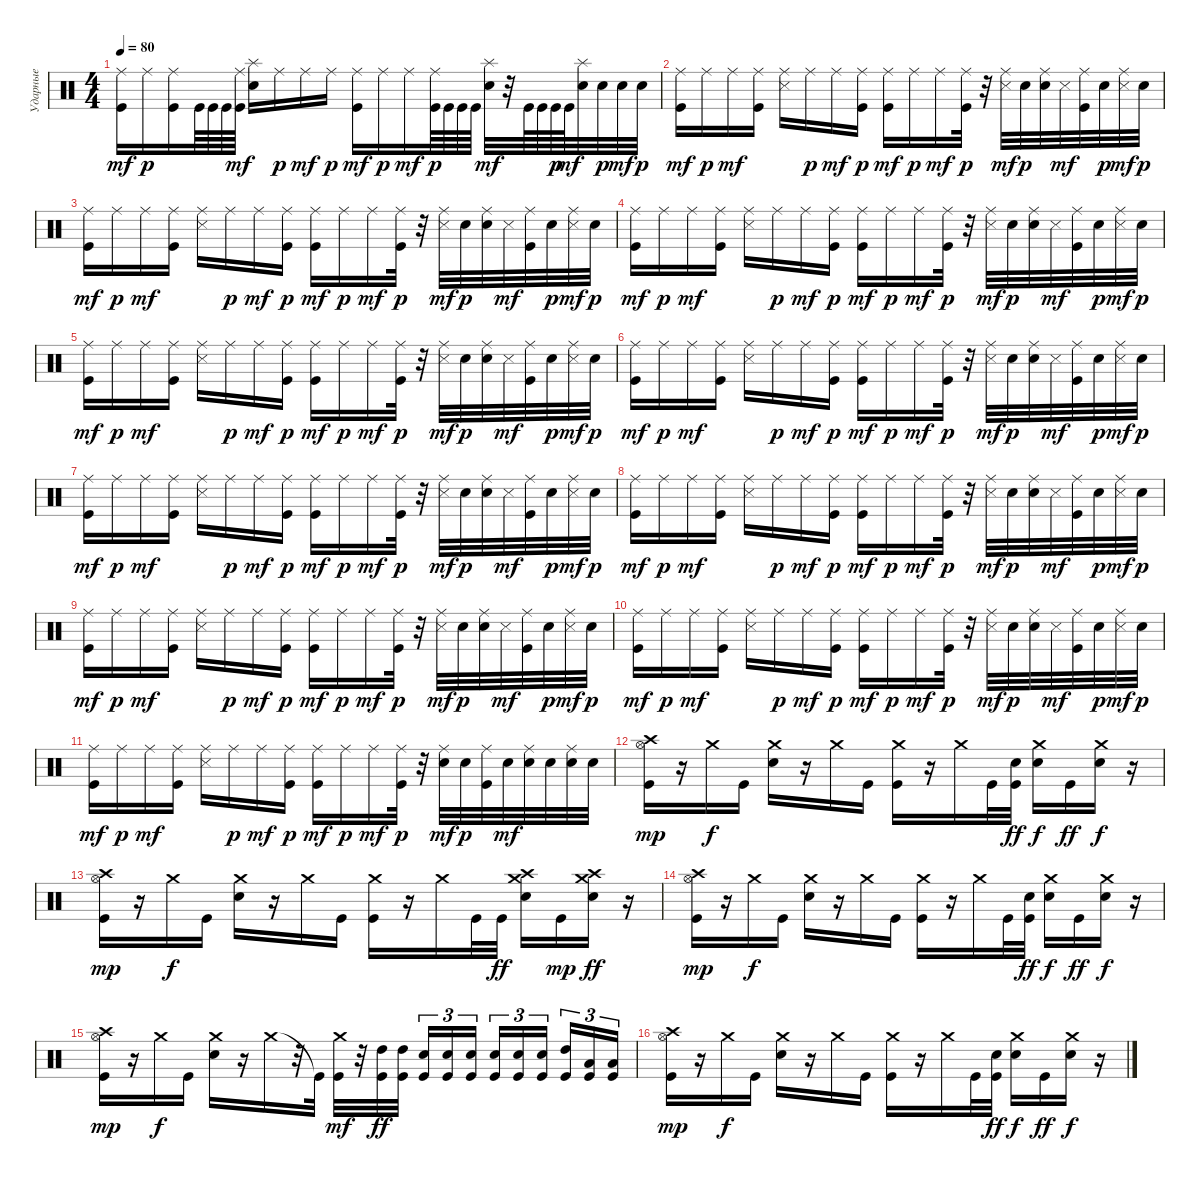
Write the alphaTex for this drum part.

\track ("Ударные" "Ударные") {instrument percussion}
\staff {score}
\articulation defaults
\ts (4 4)
\tempo 80
\clef neutral
\ks c
("Ride (middle)" "Kick (hit)").16{dy mf} "Ride (middle)".16{dy p} ("Ride (middle)" "Kick (hit)").16 "Kick (hit)".64 "Kick (hit)".64 "Kick (hit)".64 ("Ride (middle)" "Kick (hit)").64{dy mf} ("Splash (hit)" "Electric Snare (hit)").16 "Ride (middle)".16{dy p} "Ride (middle)".16{dy mf} "Ride (middle)".16{dy p} ("Ride (middle)" "Kick (hit)").16{dy mf} "Ride (middle)".16{dy p} "Ride (middle)".16{dy mf} ("Ride (middle)" "Kick (hit)").64{dy p} "Kick (hit)".64 "Kick (hit)".64 "Kick (hit)".64 ("Splash (hit)" "Electric Snare (hit)").32{dy mf} r.32 "Kick (hit)".64 "Kick (hit)".64 "Kick (hit)".64{dy p} "Kick (hit)".64{dy mf} ("Splash (hit)" "Electric Snare (hit)").32 "Snare (hit)".32{dy p} "Snare (hit)".32{dy mf} "Snare (hit)".32{dy p} |
("Ride (middle)" "Kick (hit)").16{dy mf} "Ride (middle)".16{dy p} "Ride (middle)".16{dy mf} ("Ride (middle)" "Kick (hit)").16 ("Ride (middle)" "Snare (side stick) 3").16 "Ride (middle)".16{dy p} "Ride (middle)".16{dy mf} ("Ride (middle)" "Kick (hit)").16{dy p} ("Ride (middle)" "Kick (hit)").16{dy mf} "Ride (middle)".16{dy p} "Ride (middle)".16{dy mf} ("Ride (middle)" "Kick (hit)").32{dy p} r.32 ("Ride (middle)" "Snare (side stick) 3").32{dy mf} "Snare (hit)".32{dy p} ("Ride (middle)" "Snare (hit)").32 "Snare (side stick) 3".32{dy mf} ("Ride (middle)" "Kick (hit)").32 "Snare (hit)".32{dy p} ("Ride (middle)" "Snare (side stick) 3").32{dy mf} "Snare (hit)".32{dy p} |
("Ride (middle)" "Kick (hit)").16{dy mf} "Ride (middle)".16{dy p} "Ride (middle)".16{dy mf} ("Ride (middle)" "Kick (hit)").16 ("Ride (middle)" "Snare (side stick) 3").16 "Ride (middle)".16{dy p} "Ride (middle)".16{dy mf} ("Ride (middle)" "Kick (hit)").16{dy p} ("Ride (middle)" "Kick (hit)").16{dy mf} "Ride (middle)".16{dy p} "Ride (middle)".16{dy mf} ("Ride (middle)" "Kick (hit)").32{dy p} r.32 ("Ride (middle)" "Snare (side stick) 3").32{dy mf} "Snare (hit)".32{dy p} ("Ride (middle)" "Snare (hit)").32 "Snare (side stick) 3".32{dy mf} ("Ride (middle)" "Kick (hit)").32 "Snare (hit)".32{dy p} ("Ride (middle)" "Snare (side stick) 3").32{dy mf} "Snare (hit)".32{dy p} |
("Ride (middle)" "Kick (hit)").16{dy mf} "Ride (middle)".16{dy p} "Ride (middle)".16{dy mf} ("Ride (middle)" "Kick (hit)").16 ("Ride (middle)" "Snare (side stick) 3").16 "Ride (middle)".16{dy p} "Ride (middle)".16{dy mf} ("Ride (middle)" "Kick (hit)").16{dy p} ("Ride (middle)" "Kick (hit)").16{dy mf} "Ride (middle)".16{dy p} "Ride (middle)".16{dy mf} ("Ride (middle)" "Kick (hit)").32{dy p} r.32 ("Ride (middle)" "Snare (side stick) 3").32{dy mf} "Snare (hit)".32{dy p} ("Ride (middle)" "Snare (hit)").32 "Snare (side stick) 3".32{dy mf} ("Ride (middle)" "Kick (hit)").32 "Snare (hit)".32{dy p} ("Ride (middle)" "Snare (side stick) 3").32{dy mf} "Snare (hit)".32{dy p} |
("Ride (middle)" "Kick (hit)").16{dy mf} "Ride (middle)".16{dy p} "Ride (middle)".16{dy mf} ("Ride (middle)" "Kick (hit)").16 ("Ride (middle)" "Snare (side stick) 3").16 "Ride (middle)".16{dy p} "Ride (middle)".16{dy mf} ("Ride (middle)" "Kick (hit)").16{dy p} ("Ride (middle)" "Kick (hit)").16{dy mf} "Ride (middle)".16{dy p} "Ride (middle)".16{dy mf} ("Ride (middle)" "Kick (hit)").32{dy p} r.32 ("Ride (middle)" "Snare (side stick) 3").32{dy mf} "Snare (hit)".32{dy p} ("Ride (middle)" "Snare (hit)").32 "Snare (side stick) 3".32{dy mf} ("Ride (middle)" "Kick (hit)").32 "Snare (hit)".32{dy p} ("Ride (middle)" "Snare (side stick) 3").32{dy mf} "Snare (hit)".32{dy p} |
("Ride (middle)" "Kick (hit)").16{dy mf} "Ride (middle)".16{dy p} "Ride (middle)".16{dy mf} ("Ride (middle)" "Kick (hit)").16 ("Ride (middle)" "Snare (side stick) 3").16 "Ride (middle)".16{dy p} "Ride (middle)".16{dy mf} ("Ride (middle)" "Kick (hit)").16{dy p} ("Ride (middle)" "Kick (hit)").16{dy mf} "Ride (middle)".16{dy p} "Ride (middle)".16{dy mf} ("Ride (middle)" "Kick (hit)").32{dy p} r.32 ("Ride (middle)" "Snare (side stick) 3").32{dy mf} "Snare (hit)".32{dy p} ("Ride (middle)" "Snare (hit)").32 "Snare (side stick) 3".32{dy mf} ("Ride (middle)" "Kick (hit)").32 "Snare (hit)".32{dy p} ("Ride (middle)" "Snare (side stick) 3").32{dy mf} "Snare (hit)".32{dy p} |
("Ride (middle)" "Kick (hit)").16{dy mf} "Ride (middle)".16{dy p} "Ride (middle)".16{dy mf} ("Ride (middle)" "Kick (hit)").16 ("Ride (middle)" "Snare (side stick) 3").16 "Ride (middle)".16{dy p} "Ride (middle)".16{dy mf} ("Ride (middle)" "Kick (hit)").16{dy p} ("Ride (middle)" "Kick (hit)").16{dy mf} "Ride (middle)".16{dy p} "Ride (middle)".16{dy mf} ("Ride (middle)" "Kick (hit)").32{dy p} r.32 ("Ride (middle)" "Snare (side stick) 3").32{dy mf} "Snare (hit)".32{dy p} ("Ride (middle)" "Snare (hit)").32 "Snare (side stick) 3".32{dy mf} ("Ride (middle)" "Kick (hit)").32 "Snare (hit)".32{dy p} ("Ride (middle)" "Snare (side stick) 3").32{dy mf} "Snare (hit)".32{dy p} |
("Ride (middle)" "Kick (hit)").16{dy mf} "Ride (middle)".16{dy p} "Ride (middle)".16{dy mf} ("Ride (middle)" "Kick (hit)").16 ("Ride (middle)" "Snare (side stick) 3").16 "Ride (middle)".16{dy p} "Ride (middle)".16{dy mf} ("Ride (middle)" "Kick (hit)").16{dy p} ("Ride (middle)" "Kick (hit)").16{dy mf} "Ride (middle)".16{dy p} "Ride (middle)".16{dy mf} ("Ride (middle)" "Kick (hit)").32{dy p} r.32 ("Ride (middle)" "Snare (side stick) 3").32{dy mf} "Snare (hit)".32{dy p} ("Ride (middle)" "Snare (hit)").32 "Snare (side stick) 3".32{dy mf} ("Ride (middle)" "Kick (hit)").32 "Snare (hit)".32{dy p} ("Ride (middle)" "Snare (side stick) 3").32{dy mf} "Snare (hit)".32{dy p} |
("Ride (middle)" "Kick (hit)").16{dy mf} "Ride (middle)".16{dy p} "Ride (middle)".16{dy mf} ("Ride (middle)" "Kick (hit)").16 ("Ride (middle)" "Snare (side stick) 3").16 "Ride (middle)".16{dy p} "Ride (middle)".16{dy mf} ("Ride (middle)" "Kick (hit)").16{dy p} ("Ride (middle)" "Kick (hit)").16{dy mf} "Ride (middle)".16{dy p} "Ride (middle)".16{dy mf} ("Ride (middle)" "Kick (hit)").32{dy p} r.32 ("Ride (middle)" "Snare (side stick) 3").32{dy mf} "Snare (hit)".32{dy p} ("Ride (middle)" "Snare (hit)").32 "Snare (side stick) 3".32{dy mf} ("Ride (middle)" "Kick (hit)").32 "Snare (hit)".32{dy p} ("Ride (middle)" "Snare (side stick) 3").32{dy mf} "Snare (hit)".32{dy p} |
("Ride (middle)" "Kick (hit)").16{dy mf} "Ride (middle)".16{dy p} "Ride (middle)".16{dy mf} ("Ride (middle)" "Kick (hit)").16 ("Ride (middle)" "Snare (side stick) 3").16 "Ride (middle)".16{dy p} "Ride (middle)".16{dy mf} ("Ride (middle)" "Kick (hit)").16{dy p} ("Ride (middle)" "Kick (hit)").16{dy mf} "Ride (middle)".16{dy p} "Ride (middle)".16{dy mf} ("Ride (middle)" "Kick (hit)").32{dy p} r.32 ("Ride (middle)" "Snare (side stick) 3").32{dy mf} "Snare (hit)".32{dy p} ("Ride (middle)" "Snare (hit)").32 "Snare (side stick) 3".32{dy mf} ("Ride (middle)" "Kick (hit)").32 "Snare (hit)".32{dy p} ("Ride (middle)" "Snare (side stick) 3").32{dy mf} "Snare (hit)".32{dy p} |
("Ride (middle)" "Kick (hit)").16{dy mf} "Ride (middle)".16{dy p} "Ride (middle)".16{dy mf} ("Ride (middle)" "Kick (hit)").16 ("Ride (middle)" "Snare (side stick) 3").16 "Ride (middle)".16{dy p} "Ride (middle)".16{dy mf} ("Ride (middle)" "Kick (hit)").16{dy p} ("Ride (middle)" "Kick (hit)").16{dy mf} "Ride (middle)".16{dy p} "Ride (middle)".16{dy mf} ("Ride (middle)" "Kick (hit)").32{dy p} r.32 ("Ride (middle)" "Electric Snare (hit)").32{dy mf} "Snare (hit)".32{dy p} ("Ride (middle)" "Kick (hit)").32 "Electric Snare (hit)".32{dy mf} ("Ride (middle)" "Electric Snare (hit)").32 "Electric Snare (hit)".32 ("Ride (middle)" "Electric Snare (hit)").32 "Electric Snare (hit)".32 |
("Crash high (hit)" "Hi-Hat (open)" "Kick (hit)").16{dy mp} r.16 "Crash medium (hit)".16{dy f} "Kick (hit)".16 ("Crash medium (hit)" "Electric Snare (hit)").16 r.16 "Crash medium (hit)".16 "Kick (hit)".16 ("Crash medium (hit)" "Kick (hit)").16 r.16 "Crash medium (hit)".16 "Kick (hit)".32 ("Snare (hit)" "Kick (hit)").32{dy ff} ("Crash medium (hit)" "Electric Snare (hit)").16{dy f} "Kick (hit)".16{dy ff} ("Crash medium (hit)" "Electric Snare (hit)").16{dy f} r.16 |
("Crash high (hit)" "Hi-Hat (open)" "Kick (hit)").16{dy mp} r.16 "Crash medium (hit)".16{dy f} "Kick (hit)".16 ("Crash medium (hit)" "Electric Snare (hit)").16 r.16 "Crash medium (hit)".16 "Kick (hit)".16 ("Crash medium (hit)" "Kick (hit)").16 r.16 "Crash medium (hit)".16 "Kick (hit)".32 "Kick (hit)".32{dy ff} ("Crash high (hit)" "Crash medium (hit)" "Electric Snare (hit)").16 "Kick (hit)".16{dy mp} ("Crash medium (hit)" "Crash high (hit)" "Electric Snare (hit)").16{dy ff} r.16 |
("Crash high (hit)" "Hi-Hat (open)" "Kick (hit)").16{dy mp} r.16 "Crash medium (hit)".16{dy f} "Kick (hit)".16 ("Crash medium (hit)" "Electric Snare (hit)").16 r.16 "Crash medium (hit)".16 "Kick (hit)".16 ("Crash medium (hit)" "Kick (hit)").16 r.16 "Crash medium (hit)".16 "Kick (hit)".32 ("Snare (hit)" "Kick (hit)").32{dy ff} ("Crash medium (hit)" "Electric Snare (hit)").16{dy f} "Kick (hit)".16{dy ff} ("Crash medium (hit)" "Electric Snare (hit)").16{dy f} r.16 |
("Crash high (hit)" "Hi-Hat (open)" "Kick (hit)").16{dy mp} r.16 "Crash medium (hit)".16{dy f} "Kick (hit)".16 ("Crash medium (hit)" "Electric Snare (hit)").16 r.16 "Crash medium (hit)".16 r.32 "Kick (hit)"{t}.32 ("Crash medium (hit)" "Kick (hit)").32{dy mf} r.32 ("High Tom (hit)" "Kick (hit)").32{dy ff} ("High Tom (hit)" "Kick (hit)").32{beam splitsecondary} ("Electric Snare (hit)" "Kick (hit)").16{tu (3 2)} ("Electric Snare (hit)" "Kick (hit)").16{tu (3 2)} ("Electric Snare (hit)" "Kick (hit)").16{tu (3 2)} ("Electric Snare (hit)" "Kick (hit)").16{tu (3 2)} ("Electric Snare (hit)" "Kick (hit)").16{tu (3 2)} ("Electric Snare (hit)" "Kick (hit)").16{tu (3 2) beam splitsecondary} ("High Tom (hit)" "Kick (hit)").16{tu (3 2)} ("Low Tom (hit)" "Kick (hit)").16{tu (3 2)} ("Low Tom (hit)" "Kick (hit)").16{tu (3 2)} |
("Crash high (hit)" "Hi-Hat (open)" "Kick (hit)").16{dy mp} r.16 "Crash medium (hit)".16{dy f} "Kick (hit)".16 ("Crash medium (hit)" "Electric Snare (hit)").16 r.16 "Crash medium (hit)".16 "Kick (hit)".16 ("Crash medium (hit)" "Kick (hit)").16 r.16 "Crash medium (hit)".16 "Kick (hit)".32 ("Snare (hit)" "Kick (hit)").32{dy ff} ("Crash medium (hit)" "Electric Snare (hit)").16{dy f} "Kick (hit)".16{dy ff} ("Crash medium (hit)" "Electric Snare (hit)").16{dy f} r.16
